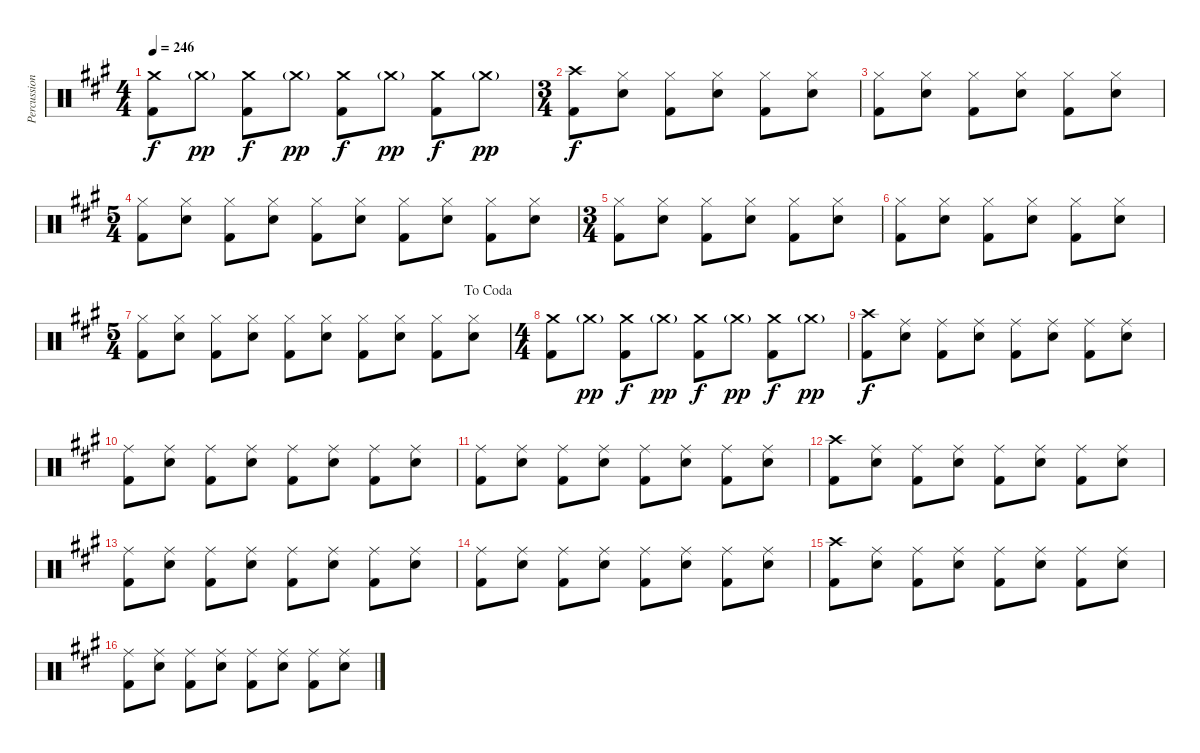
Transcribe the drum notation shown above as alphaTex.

\track ("Percussion" "Percussion") {instrument percussion}
\staff {score}
\articulation defaults
\ts (4 4)
\tempo 246
\clef neutral
\ks f#minor
("Crash medium (hit)" "Kick (hit) 2").8{dy f} "Crash medium (hit)"{g}.8{dy pp} ("Crash medium (hit)" "Kick (hit) 2").8{dy f} "Crash medium (hit)"{g}.8{dy pp} ("Crash medium (hit)" "Kick (hit) 2").8{dy f} "Crash medium (hit)"{g}.8{dy pp} ("Crash medium (hit)" "Kick (hit) 2").8{dy f} "Crash medium (hit)"{g}.8{dy pp} |
\ts (3 4)
("Crash high (hit)" "Kick (hit) 2").8{dy f} ("Hi-Hat (closed)" "Electric Snare (hit)").8 ("Hi-Hat (closed)" "Kick (hit) 2").8 ("Hi-Hat (closed)" "Electric Snare (hit)").8 ("Hi-Hat (closed)" "Kick (hit) 2").8 ("Hi-Hat (closed)" "Electric Snare (hit)").8 |
("Hi-Hat (closed)" "Kick (hit) 2").8 ("Hi-Hat (closed)" "Electric Snare (hit)").8 ("Hi-Hat (closed)" "Kick (hit) 2").8 ("Hi-Hat (closed)" "Electric Snare (hit)").8 ("Hi-Hat (closed)" "Kick (hit) 2").8 ("Hi-Hat (closed)" "Electric Snare (hit)").8 |
\ts (5 4)
("Hi-Hat (closed)" "Kick (hit) 2").8 ("Hi-Hat (closed)" "Electric Snare (hit)").8 ("Hi-Hat (closed)" "Kick (hit) 2").8 ("Hi-Hat (closed)" "Electric Snare (hit)").8 ("Hi-Hat (closed)" "Kick (hit) 2").8 ("Hi-Hat (closed)" "Electric Snare (hit)").8 ("Hi-Hat (closed)" "Kick (hit) 2").8 ("Hi-Hat (closed)" "Electric Snare (hit)").8 ("Hi-Hat (closed)" "Kick (hit) 2").8 ("Hi-Hat (closed)" "Electric Snare (hit)").8 |
\ts (3 4)
("Hi-Hat (closed)" "Kick (hit) 2").8 ("Hi-Hat (closed)" "Electric Snare (hit)").8 ("Hi-Hat (closed)" "Kick (hit) 2").8 ("Hi-Hat (closed)" "Electric Snare (hit)").8 ("Hi-Hat (closed)" "Kick (hit) 2").8 ("Hi-Hat (closed)" "Electric Snare (hit)").8 |
("Hi-Hat (closed)" "Kick (hit) 2").8 ("Hi-Hat (closed)" "Electric Snare (hit)").8 ("Hi-Hat (closed)" "Kick (hit) 2").8 ("Hi-Hat (closed)" "Electric Snare (hit)").8 ("Hi-Hat (closed)" "Kick (hit) 2").8 ("Hi-Hat (closed)" "Electric Snare (hit)").8 |
\ts (5 4)
\jump dacoda
("Hi-Hat (closed)" "Kick (hit) 2").8 ("Hi-Hat (closed)" "Electric Snare (hit)").8 ("Hi-Hat (closed)" "Kick (hit) 2").8 ("Hi-Hat (closed)" "Electric Snare (hit)").8 ("Hi-Hat (closed)" "Kick (hit) 2").8 ("Hi-Hat (closed)" "Electric Snare (hit)").8 ("Hi-Hat (closed)" "Kick (hit) 2").8 ("Hi-Hat (closed)" "Electric Snare (hit)").8 ("Hi-Hat (closed)" "Kick (hit) 2").8 ("Hi-Hat (closed)" "Electric Snare (hit)").8 |
\ts (4 4)
("Crash medium (hit)" "Kick (hit) 2").8 "Crash medium (hit)"{g}.8{dy pp} ("Crash medium (hit)" "Kick (hit) 2").8{dy f} "Crash medium (hit)"{g}.8{dy pp} ("Crash medium (hit)" "Kick (hit) 2").8{dy f} "Crash medium (hit)"{g}.8{dy pp} ("Crash medium (hit)" "Kick (hit) 2").8{dy f} "Crash medium (hit)"{g}.8{dy pp} |
("Crash high (hit)" "Kick (hit) 2").8{dy f} ("Ride (middle)" "Electric Snare (hit)").8 ("Ride (middle)" "Kick (hit) 2").8 ("Ride (middle)" "Electric Snare (hit)").8 ("Ride (middle)" "Kick (hit) 2").8 ("Ride (middle)" "Electric Snare (hit)").8 ("Ride (middle)" "Kick (hit) 2").8 ("Ride (middle)" "Electric Snare (hit)").8 |
("Ride (middle)" "Kick (hit) 2").8 ("Ride (middle)" "Electric Snare (hit)").8 ("Ride (middle)" "Kick (hit) 2").8 ("Ride (middle)" "Electric Snare (hit)").8 ("Ride (middle)" "Kick (hit) 2").8 ("Ride (middle)" "Electric Snare (hit)").8 ("Ride (middle)" "Kick (hit) 2").8 ("Ride (middle)" "Electric Snare (hit)").8 |
("Ride (middle)" "Kick (hit) 2").8 ("Ride (middle)" "Electric Snare (hit)").8 ("Ride (middle)" "Kick (hit) 2").8 ("Ride (middle)" "Electric Snare (hit)").8 ("Ride (middle)" "Kick (hit) 2").8 ("Ride (middle)" "Electric Snare (hit)").8 ("Ride (middle)" "Kick (hit) 2").8 ("Ride (middle)" "Electric Snare (hit)").8 |
("Crash high (hit)" "Kick (hit) 2").8 ("Ride (middle)" "Electric Snare (hit)").8 ("Ride (middle)" "Kick (hit) 2").8 ("Ride (middle)" "Electric Snare (hit)").8 ("Ride (middle)" "Kick (hit) 2").8 ("Ride (middle)" "Electric Snare (hit)").8 ("Ride (middle)" "Kick (hit) 2").8 ("Ride (middle)" "Electric Snare (hit)").8 |
("Ride (middle)" "Kick (hit) 2").8 ("Ride (middle)" "Electric Snare (hit)").8 ("Ride (middle)" "Kick (hit) 2").8 ("Ride (middle)" "Electric Snare (hit)").8 ("Ride (middle)" "Kick (hit) 2").8 ("Ride (middle)" "Electric Snare (hit)").8 ("Ride (middle)" "Kick (hit) 2").8 ("Ride (middle)" "Electric Snare (hit)").8 |
("Ride (middle)" "Kick (hit) 2").8 ("Ride (middle)" "Electric Snare (hit)").8 ("Ride (middle)" "Kick (hit) 2").8 ("Ride (middle)" "Electric Snare (hit)").8 ("Ride (middle)" "Kick (hit) 2").8 ("Ride (middle)" "Electric Snare (hit)").8 ("Ride (middle)" "Kick (hit) 2").8 ("Ride (middle)" "Electric Snare (hit)").8 |
("Crash high (hit)" "Kick (hit) 2").8 ("Ride (middle)" "Electric Snare (hit)").8 ("Ride (middle)" "Kick (hit) 2").8 ("Ride (middle)" "Electric Snare (hit)").8 ("Ride (middle)" "Kick (hit) 2").8 ("Ride (middle)" "Electric Snare (hit)").8 ("Ride (middle)" "Kick (hit) 2").8 ("Ride (middle)" "Electric Snare (hit)").8 |
("Ride (middle)" "Kick (hit) 2").8 ("Ride (middle)" "Electric Snare (hit)").8 ("Ride (middle)" "Kick (hit) 2").8 ("Ride (middle)" "Electric Snare (hit)").8 ("Ride (middle)" "Kick (hit) 2").8 ("Ride (middle)" "Electric Snare (hit)").8 ("Ride (middle)" "Kick (hit) 2").8 ("Ride (middle)" "Electric Snare (hit)").8
